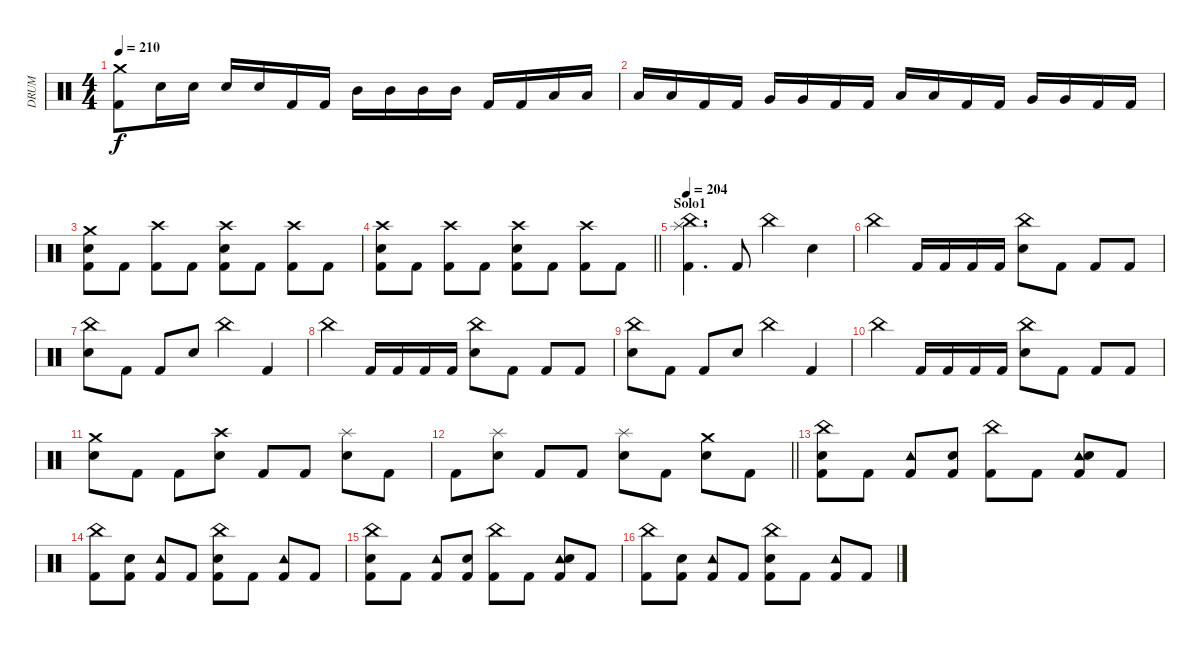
\track ("DRUM" "DRUM") {instrument percussion bank 102}
\staff {score}
\articulation defaults
\ts (4 4)
\tempo 210
\clef neutral
\ks c
("Crash medium (hit)" "Kick (hit) 2").8{dy f} "Electric Snare (hit)".16 "Electric Snare (hit)".16 "Electric Snare (hit)".16 "Electric Snare (hit)".16 "Kick (hit) 2".16 "Kick (hit) 2".16 "Mid Tom (hit)".16 "Mid Tom (hit)".16 "Mid Tom (hit)".16 "Mid Tom (hit)".16 "Kick (hit) 2".16 "Kick (hit) 2".16 "Low Tom (hit)".16 "Low Tom (hit)".16 |
"Low Tom (hit)".16 "Low Tom (hit)".16 "Kick (hit) 2".16 "Kick (hit) 2".16 "Very Low Tom (hit)".16 "Very Low Tom (hit)".16 "Kick (hit) 2".16 "Kick (hit) 2".16 "Low Floor Tom (hit)".16 "Low Floor Tom (hit)".16 "Kick (hit) 2".16 "Kick (hit) 2".16 "Very Low Tom (hit)".16 "Very Low Tom (hit)".16 "Kick (hit) 2".16 "Kick (hit) 2".16 |
("Crash medium (hit)" "Electric Snare (hit)" "Kick (hit) 2").8 "Kick (hit) 2".8 ("Crash high (hit)" "Kick (hit) 2").8 "Kick (hit) 2".8 ("Crash high (hit)" "Electric Snare (hit)" "Kick (hit) 2").8 "Kick (hit) 2".8 ("Crash high (hit)" "Kick (hit) 2").8 "Kick (hit) 2".8 |
\barLineRight lightlight
("Crash high (hit)" "Electric Snare (hit)" "Kick (hit) 2").8 "Kick (hit) 2".8 ("Crash high (hit)" "Kick (hit) 2").8 "Kick (hit) 2".8 ("Crash high (hit)" "Electric Snare (hit)" "Kick (hit) 2").8 "Kick (hit) 2".8 ("Crash high (hit)" "Kick (hit) 2").8 "Kick (hit) 2".8 |
\section ("" "Solo1")
\tempo 204
("China (hit)" "Splash (hit)" "Kick (hit) 2").4{d} "Kick (hit) 2".8 "China (hit)".4 "Electric Snare (hit)".4 |
"China (hit)".4 "Kick (hit) 2".16 "Kick (hit) 2".16 "Kick (hit) 2".16 "Kick (hit) 2".16 ("China (hit)" "Electric Snare (hit)").8 "Kick (hit) 2".8 "Kick (hit) 2".8 "Kick (hit) 2".8 |
("China (hit)" "Electric Snare (hit)").8 "Kick (hit) 2".8 "Kick (hit) 2".8 "Electric Snare (hit)".8 "China (hit)".4 "Kick (hit) 2".4 |
"China (hit)".4 "Kick (hit) 2".16 "Kick (hit) 2".16 "Kick (hit) 2".16 "Kick (hit) 2".16 ("China (hit)" "Electric Snare (hit)").8 "Kick (hit) 2".8 "Kick (hit) 2".8 "Kick (hit) 2".8 |
("China (hit)" "Electric Snare (hit)").8 "Kick (hit) 2".8 "Kick (hit) 2".8 "Electric Snare (hit)".8 "China (hit)".4 "Kick (hit) 2".4 |
"China (hit)".4 "Kick (hit) 2".16 "Kick (hit) 2".16 "Kick (hit) 2".16 "Kick (hit) 2".16 ("China (hit)" "Electric Snare (hit)").8 "Kick (hit) 2".8 "Kick (hit) 2".8 "Kick (hit) 2".8 |
("Crash medium (hit)" "Electric Snare (hit)").8 "Kick (hit) 2".8 "Kick (hit) 2".8 ("Crash high (hit)" "Electric Snare (hit)").8 "Kick (hit) 2".8 "Kick (hit) 2".8 ("Splash (hit)" "Electric Snare (hit)").8 "Kick (hit) 2".8 |
\barLineRight lightlight "Kick (hit) 2".8
("Splash (hit)" "Electric Snare (hit)").8 "Kick (hit) 2".8 "Kick (hit) 2".8 ("Splash (hit)" "Electric Snare (hit)").8 "Kick (hit) 2".8 ("Crash medium (hit)" "Electric Snare (hit)").8 "Kick (hit) 2".8 |
("China (hit)" "Electric Snare (hit)" "Kick (hit) 2").8 "Kick (hit) 2".8 ("Tambourine (hit)" "Kick (hit) 2").8 ("Electric Snare (hit)" "Kick (hit) 2").8 ("China (hit)" "Kick (hit) 2").8 "Kick (hit) 2".8 ("Tambourine (hit)" "Electric Snare (hit)" "Kick (hit) 2").8 "Kick (hit) 2".8 |
("China (hit)" "Kick (hit) 2").8 ("Electric Snare (hit)" "Kick (hit) 2").8 ("Tambourine (hit)" "Kick (hit) 2").8 "Kick (hit) 2".8 ("China (hit)" "Electric Snare (hit)" "Kick (hit) 2").8 "Kick (hit) 2".8 ("Tambourine (hit)" "Kick (hit) 2").8 "Kick (hit) 2".8 |
("China (hit)" "Electric Snare (hit)" "Kick (hit) 2").8 "Kick (hit) 2".8 ("Tambourine (hit)" "Kick (hit) 2").8 ("Electric Snare (hit)" "Kick (hit) 2").8 ("China (hit)" "Kick (hit) 2").8 "Kick (hit) 2".8 ("Tambourine (hit)" "Electric Snare (hit)" "Kick (hit) 2").8 "Kick (hit) 2".8 |
("China (hit)" "Kick (hit) 2").8 ("Electric Snare (hit)" "Kick (hit) 2").8 ("Tambourine (hit)" "Kick (hit) 2").8 "Kick (hit) 2".8 ("China (hit)" "Electric Snare (hit)" "Kick (hit) 2").8 "Kick (hit) 2".8 ("Tambourine (hit)" "Kick (hit) 2").8 "Kick (hit) 2".8
